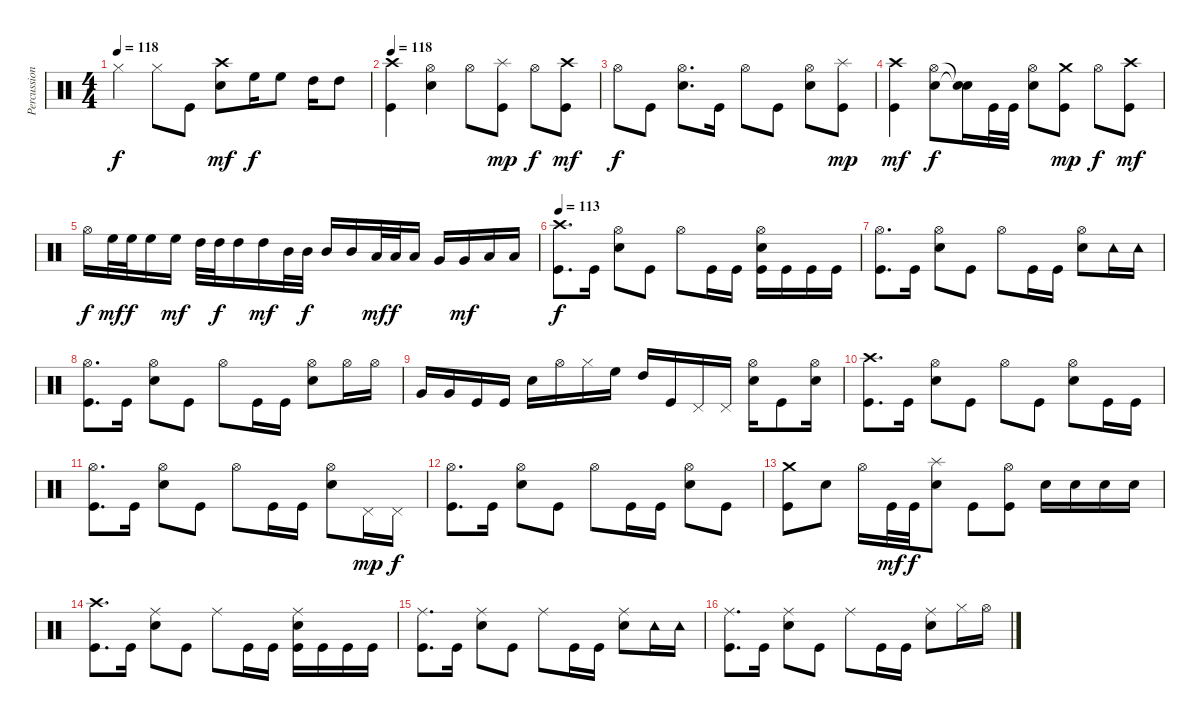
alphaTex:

\track ("Percussioni" "Percussion") {instrument percussion}
\staff {score}
\articulation defaults
\ts (4 4)
\tempo 118
\clef neutral
\ks c "Hi-Hat (closed)".4{dy f} "Hi-Hat (closed)".8 "Kick (hit)".8
("Crash high (hit)" "Snare (hit) 2").8{dy mf} "High Floor Tom (hit)".16{dy f} "High Floor Tom (hit)".8 "High Tom (hit)".16 "High Tom (hit)".8 |
\tempo 118
("Crash high (hit)" "Kick (hit)").4 ("Hi-Hat (open)" "Snare (hit) 2").4 "Hi-Hat (open)".8 ("Splash (hit)" "Kick (hit)").8{dy mp} "Hi-Hat (open)".8{dy f} ("Crash high (hit)" "Kick (hit)").8{dy mf} |
"Hi-Hat (open)".8{dy f} "Kick (hit)".8 ("Hi-Hat (open)" "Snare (hit) 2").8{d} "Kick (hit)".16 "Hi-Hat (open)".8 "Kick (hit)".8 ("Hi-Hat (open)" "Snare (hit) 2").8 ("Splash (hit)" "Kick (hit)").8{dy mp} |
("Crash high (hit)" "Kick (hit)").4{dy mf} ("Hi-Hat (open)" "Snare (hit) 2").8{dy f} ("Snare (hit)"{t} "Snare (hit)"{t}).16 "Kick (hit)".32 "Kick (hit)".32 ("Hi-Hat (open)" "Snare (hit) 2").8 ("Crash medium (hit)" "Kick (hit)").8{dy mp} "Hi-Hat (open)".8{dy f} ("Crash high (hit)" "Kick (hit)").8{dy mf} |
"Hi-Hat (open)".16{dy f} "High Floor Tom (hit)".32{dy mf} "High Floor Tom (hit)".32{dy f} "High Floor Tom (hit)".16 "High Floor Tom (hit)".16{dy mf} "High Tom (hit)".32 "High Tom (hit)".32{dy f} "High Tom (hit)".16 "High Tom (hit)".16{dy mf} "Mid Tom (hit)".32 "Mid Tom (hit)".32{dy f} "Mid Tom (hit)".16 "Mid Tom (hit)".16 "Low Tom (hit)".32{dy mf} "Low Tom (hit)".32{dy f} "Low Tom (hit)".16 "Very Low Tom (hit)".16 "Very Low Tom (hit)".16{dy mf} "Low Floor Tom (hit)".16 "Low Floor Tom (hit)".16 |
\tempo 113
("Crash high (hit)" "Kick (hit)").8{d dy f} "Kick (hit)".16 ("Hi-Hat (open)" "Snare (hit) 2").8 "Kick (hit)".8 "Hi-Hat (open)".8 "Kick (hit)".16 "Kick (hit)".16 ("Hi-Hat (open)" "Snare (hit) 2" "Kick (hit)").16 "Kick (hit)".16 "Kick (hit)".16 "Kick (hit)".16 |
("Hi-Hat (open)" "Kick (hit)").8{d} "Kick (hit)".16 ("Hi-Hat (open)" "Snare (hit) 2").8 "Kick (hit)".8 "Hi-Hat (open)".8 "Kick (hit)".16 "Kick (hit)".16 ("Hi-Hat (open)" "Snare (hit) 2").8 "Tambourine (hit)".16 "Tambourine (hit)".16 |
("Hi-Hat (open)" "Kick (hit)").8{d} "Kick (hit)".16 ("Hi-Hat (open)" "Snare (hit) 2").8 "Kick (hit)".8 "Hi-Hat (open)".8 "Kick (hit)".16 "Kick (hit)".16 ("Hi-Hat (open)" "Snare (hit) 2").8 "Hi-Hat (open)".16 "Hi-Hat (open)".16 |
"Very Low Tom (hit)".16 "Very Low Tom (hit)".16 "Kick (hit)".16 "Kick (hit)".16 "Snare (hit) 2".16 "Hi-Hat (open)".16 "Hi-Hat (closed)".16 "High Floor Tom (hit)".16 "High Tom (hit)".16 "Kick (hit)".16 "Pedal Hi-Hat (hit)".16 "Pedal Hi-Hat (hit)".16 ("Hi-Hat (open)" "Snare (hit) 2").16 "Kick (hit)".8 ("Hi-Hat (open)" "Snare (hit) 2").16 |
("Crash high (hit)" "Kick (hit)").8{d} "Kick (hit)".16 ("Hi-Hat (open)" "Snare (hit) 2").8 "Kick (hit)".8 "Hi-Hat (open)".8 "Kick (hit)".8 ("Hi-Hat (open)" "Snare (hit) 2").8 "Kick (hit)".16 "Kick (hit)".16 |
("Hi-Hat (open)" "Kick (hit)").8{d} "Kick (hit)".16 ("Hi-Hat (open)" "Snare (hit) 2").8 "Kick (hit)".8 "Hi-Hat (open)".8 "Kick (hit)".16 "Kick (hit)".16 ("Hi-Hat (open)" "Snare (hit) 2").8 "Pedal Hi-Hat (hit)".16{dy mp} "Pedal Hi-Hat (hit)".16{dy f} |
("Hi-Hat (open)" "Kick (hit)").8{d} "Kick (hit)".16 ("Hi-Hat (open)" "Snare (hit) 2").8 "Kick (hit)".8 "Hi-Hat (open)".8 "Kick (hit)".16 "Kick (hit)".16 ("Hi-Hat (open)" "Snare (hit) 2").8 "Kick (hit)".8 |
("Crash medium (hit)" "Kick (hit)").8 "Snare (hit) 2".8 "Hi-Hat (open)".16 "Kick (hit)".32{dy mf} "Kick (hit)".32{dy f} ("Splash (hit)" "Snare (hit) 2").8 "Kick (hit)".8 ("Hi-Hat (open)" "Kick (hit)").8 "Snare (hit) 2".16 "Snare (hit) 2".16 "Snare (hit) 2".16 "Snare (hit) 2".16 |
("Crash high (hit)" "Kick (hit)").8{d} "Kick (hit)".16 ("Ride (middle)" "Snare (hit) 2").8 "Kick (hit)".8 "Ride (middle)".8 "Kick (hit)".16 "Kick (hit)".16 ("Ride (middle)" "Snare (hit) 2" "Kick (hit)").16 "Kick (hit)".16 "Kick (hit)".16 "Kick (hit)".16 |
("Ride (middle)" "Kick (hit)").8{d} "Kick (hit)".16 ("Ride (middle)" "Snare (hit) 2").8 "Kick (hit)".8 "Ride (middle)".8 "Kick (hit)".16 "Kick (hit)".16 ("Ride (middle)" "Snare (hit) 2").8 "Tambourine (hit)".16 "Tambourine (hit)".16 |
("Ride (middle)" "Kick (hit)").8{d} "Kick (hit)".16 ("Ride (middle)" "Snare (hit) 2").8 "Kick (hit)".8 "Ride (middle)".8 "Kick (hit)".16 "Kick (hit)".16 ("Ride (middle)" "Snare (hit) 2").8 "Hi-Hat (closed)".16 "Hi-Hat (open)".16
